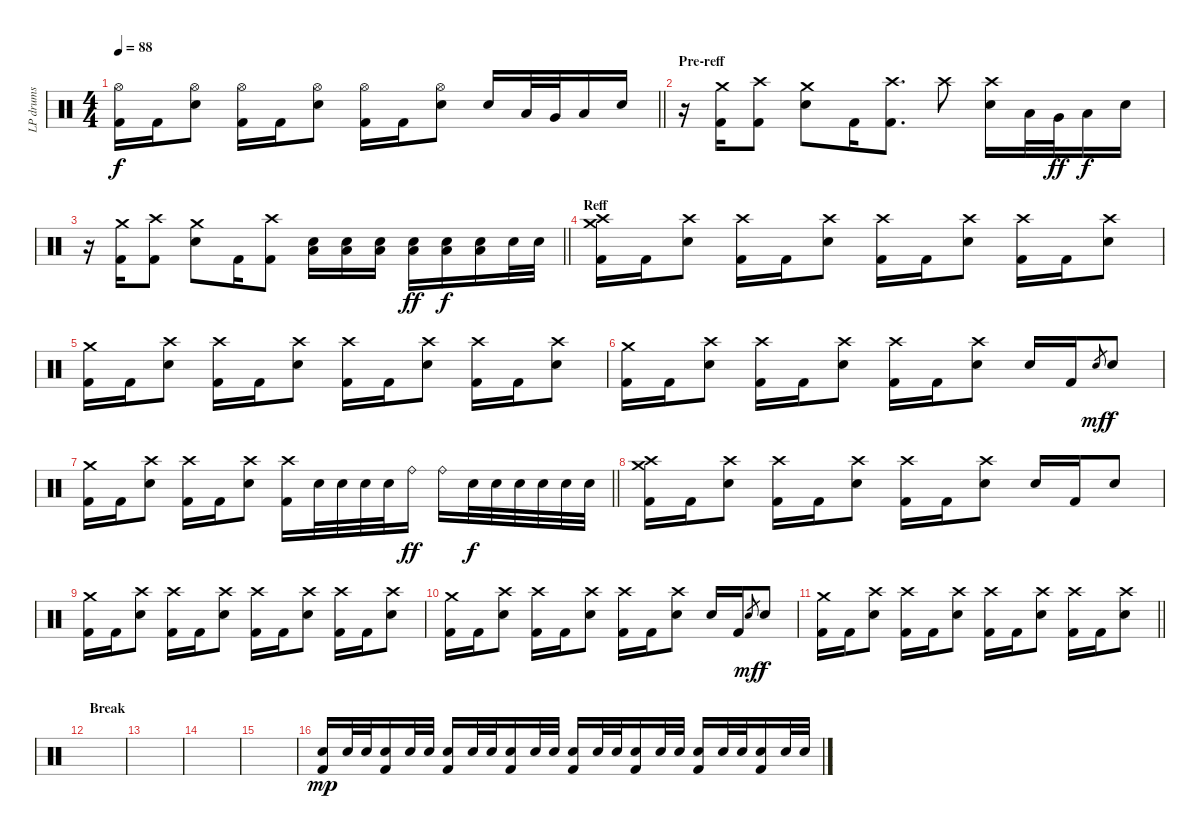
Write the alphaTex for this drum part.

\track ("LP drums" "LP drums") {instrument percussion}
\staff {score}
\articulation defaults
\ts (4 4)
\tempo 88
\clef neutral
\barLineRight lightlight
\ks c
("Hi-Hat (open)" "Kick (hit) 2").16{dy f} "Kick (hit) 2".16 ("Hi-Hat (open)" "Electric Snare (hit)").8 ("Hi-Hat (open)" "Kick (hit) 2").16 "Kick (hit) 2".16 ("Hi-Hat (open)" "Electric Snare (hit)").8 ("Hi-Hat (open)" "Kick (hit) 2").16 "Kick (hit) 2".16 ("Hi-Hat (open)" "Electric Snare (hit)").8 "Electric Snare (hit)".16 "Low Tom (hit)".32 "Very Low Tom (hit)".32 "Low Floor Tom (hit)".16 "Electric Snare (hit)".16 |
\section ("" "Pre-reff")
r.16 ("Crash medium (hit)" "Kick (hit) 2").16 ("Crash high (hit)" "Kick (hit) 2").8 ("Crash medium (hit)" "Electric Snare (hit)").8 "Kick (hit) 2".16 ("Crash high (hit)" "Kick (hit) 2").8{d} "Crash high (hit)".8 ("Crash high (hit)" "Electric Snare (hit)").16 "Low Tom (hit)".32 "Very Low Tom (hit)".32{dy ff} "Low Floor Tom (hit)".16{dy f} "Electric Snare (hit)".16 |
\barLineRight lightlight
r.16 ("Crash medium (hit)" "Kick (hit) 2").16 ("Crash high (hit)" "Kick (hit) 2").8 ("Crash medium (hit)" "Electric Snare (hit)").8 "Kick (hit) 2".16 ("Crash high (hit)" "Kick (hit) 2").8 ("Low Floor Tom (hit)" "Electric Snare (hit)").16 ("Low Floor Tom (hit)" "Electric Snare (hit)").16 ("Low Floor Tom (hit)" "Electric Snare (hit)").16 ("Low Floor Tom (hit)" "Electric Snare (hit)").16{dy ff} ("Low Floor Tom (hit)" "Electric Snare (hit)").16{dy f} ("Low Floor Tom (hit)" "Electric Snare (hit)").16 "Electric Snare (hit)".32 "Electric Snare (hit)".32 |
\section ("" "Reff")
("Crash high (hit)" "Crash medium (hit)" "Kick (hit) 2").16 "Kick (hit) 2".16 ("Crash high (hit)" "Electric Snare (hit)").8 ("Crash high (hit)" "Kick (hit) 2").16 "Kick (hit) 2".16 ("Crash high (hit)" "Electric Snare (hit)").8 ("Crash high (hit)" "Kick (hit) 2").16 "Kick (hit) 2".16 ("Crash high (hit)" "Electric Snare (hit)").8 ("Crash high (hit)" "Kick (hit) 2").16 "Kick (hit) 2".16 ("Crash high (hit)" "Electric Snare (hit)").8 |
("Crash medium (hit)" "Kick (hit) 2").16 "Kick (hit) 2".16 ("Crash high (hit)" "Electric Snare (hit)").8 ("Crash high (hit)" "Kick (hit) 2").16 "Kick (hit) 2".16 ("Crash high (hit)" "Electric Snare (hit)").8 ("Crash high (hit)" "Kick (hit) 2").16 "Kick (hit) 2".16 ("Crash high (hit)" "Electric Snare (hit)").8 ("Crash high (hit)" "Kick (hit) 2").16 "Kick (hit) 2".16 ("Crash high (hit)" "Electric Snare (hit)").8 |
("Crash medium (hit)" "Kick (hit) 2").16 "Kick (hit) 2".16 ("Crash high (hit)" "Electric Snare (hit)").8 ("Crash high (hit)" "Kick (hit) 2").16 "Kick (hit) 2".16 ("Crash high (hit)" "Electric Snare (hit)").8 ("Crash high (hit)" "Kick (hit) 2").16 "Kick (hit) 2".16 ("Crash high (hit)" "Electric Snare (hit)").8 "Electric Snare (hit)".16 "Kick (hit) 2".16 "Electric Snare (hit)".8{gr dy mf} "Electric Snare (hit)".8{dy f} |
\barLineRight lightlight
("Crash medium (hit)" "Kick (hit) 2").16 "Kick (hit) 2".16 ("Crash high (hit)" "Electric Snare (hit)").8 ("Crash high (hit)" "Kick (hit) 2").16 "Kick (hit) 2".16 ("Crash high (hit)" "Electric Snare (hit)").8 ("Crash high (hit)" "Kick (hit) 2").16 "Electric Snare (hit)".32 "Electric Snare (hit)".32 "Electric Snare (hit)".32 "Electric Snare (hit)".32 "Ride (bell)".16{dy ff} "Ride (bell)".16 "Electric Snare (hit)".32{dy f} "Electric Snare (hit)".32 "Electric Snare (hit)".32 "Electric Snare (hit)".32 "Electric Snare (hit)".32 "Electric Snare (hit)".32 |
("Crash high (hit)" "Crash medium (hit)" "Kick (hit) 2").16 "Kick (hit) 2".16 ("Crash high (hit)" "Electric Snare (hit)").8 ("Crash high (hit)" "Kick (hit) 2").16 "Kick (hit) 2".16 ("Crash high (hit)" "Electric Snare (hit)").8 ("Crash high (hit)" "Kick (hit) 2").16 "Kick (hit) 2".16 ("Crash high (hit)" "Electric Snare (hit)").8 "Electric Snare (hit)".16 "Kick (hit) 2".16 "Electric Snare (hit)".8 |
("Crash medium (hit)" "Kick (hit) 2").16 "Kick (hit) 2".16 ("Crash high (hit)" "Electric Snare (hit)").8 ("Crash high (hit)" "Kick (hit) 2").16 "Kick (hit) 2".16 ("Crash high (hit)" "Electric Snare (hit)").8 ("Crash high (hit)" "Kick (hit) 2").16 "Kick (hit) 2".16 ("Crash high (hit)" "Electric Snare (hit)").8 ("Crash high (hit)" "Kick (hit) 2").16 "Kick (hit) 2".16 ("Crash high (hit)" "Electric Snare (hit)").8 |
("Crash medium (hit)" "Kick (hit) 2").16 "Kick (hit) 2".16 ("Crash high (hit)" "Electric Snare (hit)").8 ("Crash high (hit)" "Kick (hit) 2").16 "Kick (hit) 2".16 ("Crash high (hit)" "Electric Snare (hit)").8 ("Crash high (hit)" "Kick (hit) 2").16 "Kick (hit) 2".16 ("Crash high (hit)" "Electric Snare (hit)").8 "Electric Snare (hit)".16 "Kick (hit) 2".16 "Electric Snare (hit)".8{gr dy mf} "Electric Snare (hit)".8{dy f} |
\barLineRight lightlight
("Crash medium (hit)" "Kick (hit) 2").16 "Kick (hit) 2".16 ("Crash high (hit)" "Electric Snare (hit)").8 ("Crash high (hit)" "Kick (hit) 2").16 "Kick (hit) 2".16 ("Crash high (hit)" "Electric Snare (hit)").8 ("Crash high (hit)" "Kick (hit) 2").16 "Kick (hit) 2".16 ("Crash high (hit)" "Electric Snare (hit)").8 ("Crash high (hit)" "Kick (hit) 2").16 "Kick (hit) 2".16 ("Crash high (hit)" "Electric Snare (hit)").8 |
\section ("" "Break")
|
|
|
|
("Electric Snare (hit)" "Kick (hit) 2").16{dy mp} "Electric Snare (hit)".32 "Electric Snare (hit)".32 ("Electric Snare (hit)" "Kick (hit) 2").16 "Electric Snare (hit)".32 "Electric Snare (hit)".32 ("Electric Snare (hit)" "Kick (hit) 2").16 "Electric Snare (hit)".32 "Electric Snare (hit)".32 ("Electric Snare (hit)" "Kick (hit) 2").16 "Electric Snare (hit)".32 "Electric Snare (hit)".32 ("Electric Snare (hit)" "Kick (hit) 2").16 "Electric Snare (hit)".32 "Electric Snare (hit)".32 ("Electric Snare (hit)" "Kick (hit) 2").16 "Electric Snare (hit)".32 "Electric Snare (hit)".32 ("Electric Snare (hit)" "Kick (hit) 2").16 "Electric Snare (hit)".32 "Electric Snare (hit)".32 ("Electric Snare (hit)" "Kick (hit) 2").16 "Electric Snare (hit)".32 "Electric Snare (hit)".32
